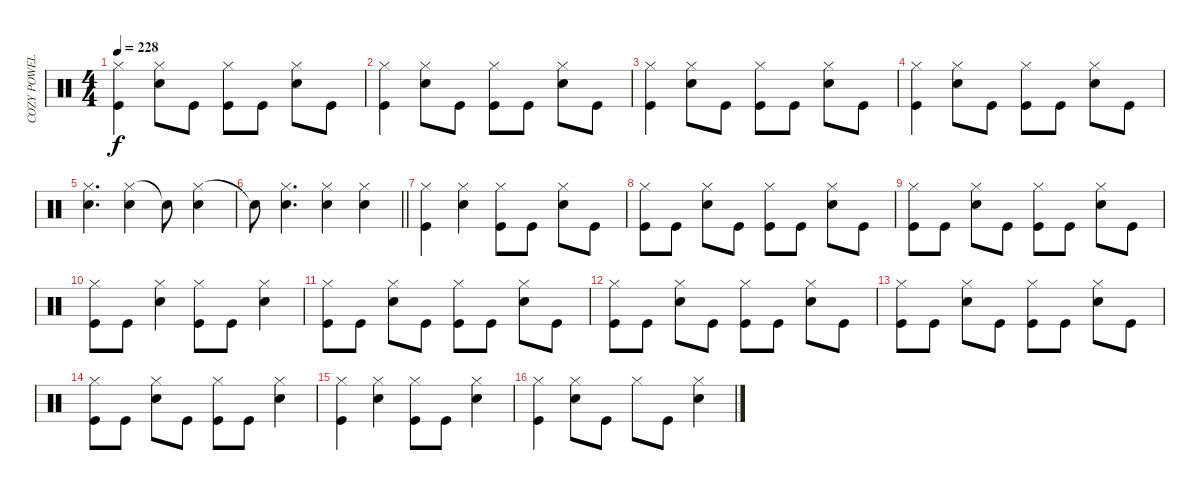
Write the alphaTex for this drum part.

\track ("COZY POWELL" "COZY POWEL") {instrument percussion}
\staff {score}
\articulation defaults
\ts (4 4)
\tempo 228
\clef neutral
\ks c
("Hi-Hat (closed)" "Kick (hit)").4{dy f} ("Hi-Hat (closed)" "Snare (hit) 2").8 "Kick (hit)".8 ("Hi-Hat (closed)" "Kick (hit)").8 "Kick (hit)".8 ("Hi-Hat (closed)" "Snare (hit) 2").8 "Kick (hit)".8 |
("Hi-Hat (closed)" "Kick (hit)").4 ("Hi-Hat (closed)" "Snare (hit) 2").8 "Kick (hit)".8 ("Hi-Hat (closed)" "Kick (hit)").8 "Kick (hit)".8 ("Hi-Hat (closed)" "Snare (hit) 2").8 "Kick (hit)".8 |
("Hi-Hat (closed)" "Kick (hit)").4 ("Hi-Hat (closed)" "Snare (hit) 2").8 "Kick (hit)".8 ("Hi-Hat (closed)" "Kick (hit)").8 "Kick (hit)".8 ("Hi-Hat (closed)" "Snare (hit) 2").8 "Kick (hit)".8 |
("Hi-Hat (closed)" "Kick (hit)").4 ("Hi-Hat (closed)" "Snare (hit) 2").8 "Kick (hit)".8 ("Hi-Hat (closed)" "Kick (hit)").8 "Kick (hit)".8 ("Hi-Hat (closed)" "Snare (hit) 2").8 "Kick (hit)".8 |
("Hi-Hat (closed)" "Snare (hit) 2").4{d} ("Hi-Hat (closed)" "Snare (hit) 2").4 "Snare (hit)"{t}.8 ("Hi-Hat (closed)" "Snare (hit) 2").4 |
\barLineRight lightlight "Snare (hit)"{t}.8
("Hi-Hat (closed)" "Snare (hit) 2").4{d} ("Hi-Hat (closed)" "Snare (hit) 2").4 ("Hi-Hat (closed)" "Snare (hit) 2").4 |
("Hi-Hat (closed)" "Kick (hit)").4 ("Hi-Hat (closed)" "Snare (hit) 2").4 ("Hi-Hat (closed)" "Kick (hit)").8 "Kick (hit)".8 ("Hi-Hat (closed)" "Snare (hit) 2").8 "Kick (hit)".8 |
("Hi-Hat (closed)" "Kick (hit)").8 "Kick (hit)".8 ("Hi-Hat (closed)" "Snare (hit) 2").8 "Kick (hit)".8 ("Hi-Hat (closed)" "Kick (hit)").8 "Kick (hit)".8 ("Hi-Hat (closed)" "Snare (hit) 2").8 "Kick (hit)".8 |
("Hi-Hat (closed)" "Kick (hit)").8 "Kick (hit)".8 ("Hi-Hat (closed)" "Snare (hit) 2").8 "Kick (hit)".8 ("Hi-Hat (closed)" "Kick (hit)").8 "Kick (hit)".8 ("Hi-Hat (closed)" "Snare (hit) 2").8 "Kick (hit)".8 |
("Hi-Hat (closed)" "Kick (hit)").8 "Kick (hit)".8 ("Hi-Hat (closed)" "Snare (hit) 2").4 ("Hi-Hat (closed)" "Kick (hit)").8 "Kick (hit)".8 ("Hi-Hat (closed)" "Snare (hit) 2").4 |
("Hi-Hat (closed)" "Kick (hit)").8 "Kick (hit)".8 ("Hi-Hat (closed)" "Snare (hit) 2").8 "Kick (hit)".8 ("Hi-Hat (closed)" "Kick (hit)").8 "Kick (hit)".8 ("Hi-Hat (closed)" "Snare (hit) 2").8 "Kick (hit)".8 |
("Hi-Hat (closed)" "Kick (hit)").8 "Kick (hit)".8 ("Hi-Hat (closed)" "Snare (hit) 2").8 "Kick (hit)".8 ("Hi-Hat (closed)" "Kick (hit)").8 "Kick (hit)".8 ("Hi-Hat (closed)" "Snare (hit) 2").8 "Kick (hit)".8 |
("Hi-Hat (closed)" "Kick (hit)").8 "Kick (hit)".8 ("Hi-Hat (closed)" "Snare (hit) 2").8 "Kick (hit)".8 ("Hi-Hat (closed)" "Kick (hit)").8 "Kick (hit)".8 ("Hi-Hat (closed)" "Snare (hit) 2").8 "Kick (hit)".8 |
("Hi-Hat (closed)" "Kick (hit)").8 "Kick (hit)".8 ("Hi-Hat (closed)" "Snare (hit) 2").8 "Kick (hit)".8 ("Hi-Hat (closed)" "Kick (hit)").8 "Kick (hit)".8 ("Hi-Hat (closed)" "Snare (hit) 2").4 |
("Hi-Hat (closed)" "Kick (hit)").4 ("Hi-Hat (closed)" "Snare (hit) 2").4 ("Hi-Hat (closed)" "Kick (hit)").8 "Kick (hit)".8 ("Hi-Hat (closed)" "Snare (hit) 2").4 |
("Hi-Hat (closed)" "Kick (hit)").4 ("Hi-Hat (closed)" "Snare (hit) 2").8 "Kick (hit)".8 "Hi-Hat (closed)".8 "Kick (hit)".8 ("Hi-Hat (closed)" "Snare (hit) 2").4
